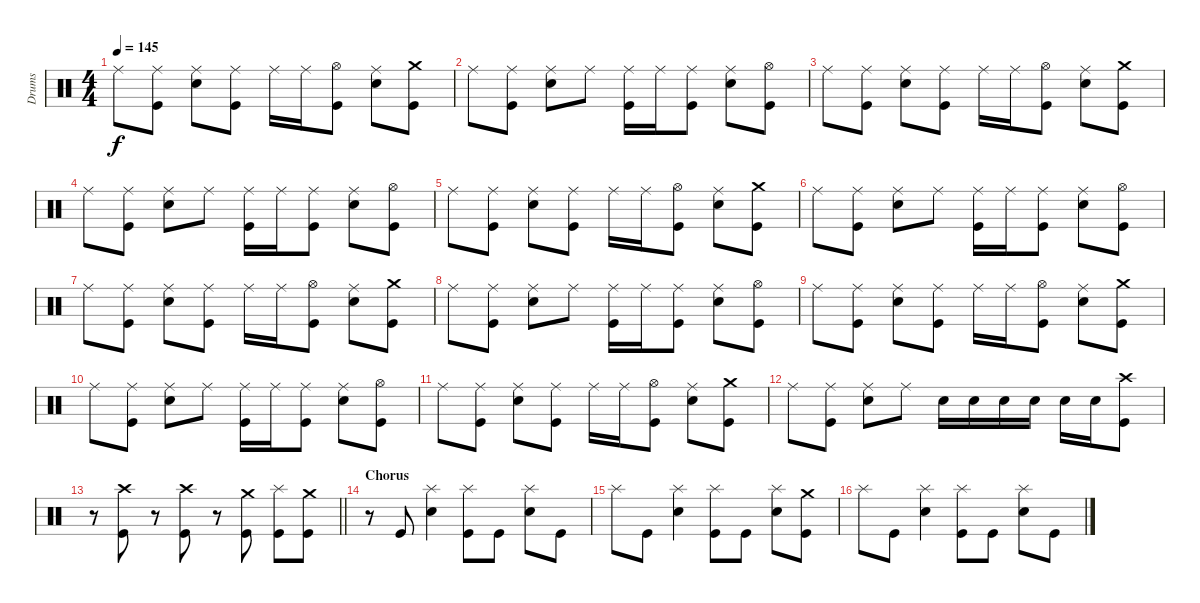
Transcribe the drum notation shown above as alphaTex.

\track ("Drums" "Drums") {instrument percussion}
\staff {score}
\articulation defaults
\ts (4 4)
\tempo 145
\clef neutral
\ks c "Ride (middle)".8{dy f}
("Ride (middle)" "Kick (hit)").8 ("Ride (middle)" "Electric Snare (hit)").8 ("Ride (middle)" "Kick (hit)").8 "Ride (middle)".16 "Ride (middle)".16 ("Hi-Hat (open)" "Kick (hit)").8 ("Ride (middle)" "Electric Snare (hit)").8 ("Crash medium (hit)" "Kick (hit)").8 |
"Ride (middle)".8 ("Ride (middle)" "Kick (hit)").8 ("Ride (middle)" "Electric Snare (hit)").8 "Ride (middle)".8 ("Ride (middle)" "Kick (hit)").16 "Ride (middle)".16 ("Ride (middle)" "Kick (hit)").8 ("Ride (middle)" "Electric Snare (hit)").8 ("Hi-Hat (open)" "Kick (hit)").8 |
"Ride (middle)".8 ("Ride (middle)" "Kick (hit)").8 ("Ride (middle)" "Electric Snare (hit)").8 ("Ride (middle)" "Kick (hit)").8 "Ride (middle)".16 "Ride (middle)".16 ("Hi-Hat (open)" "Kick (hit)").8 ("Ride (middle)" "Electric Snare (hit)").8 ("Crash medium (hit)" "Kick (hit)").8 |
"Ride (middle)".8 ("Ride (middle)" "Kick (hit)").8 ("Ride (middle)" "Electric Snare (hit)").8 "Ride (middle)".8 ("Ride (middle)" "Kick (hit)").16 "Ride (middle)".16 ("Ride (middle)" "Kick (hit)").8 ("Ride (middle)" "Electric Snare (hit)").8 ("Hi-Hat (open)" "Kick (hit)").8 |
"Ride (middle)".8 ("Ride (middle)" "Kick (hit)").8 ("Ride (middle)" "Electric Snare (hit)").8 ("Ride (middle)" "Kick (hit)").8 "Ride (middle)".16 "Ride (middle)".16 ("Hi-Hat (open)" "Kick (hit)").8 ("Ride (middle)" "Electric Snare (hit)").8 ("Crash medium (hit)" "Kick (hit)").8 |
"Ride (middle)".8 ("Ride (middle)" "Kick (hit)").8 ("Ride (middle)" "Electric Snare (hit)").8 "Ride (middle)".8 ("Ride (middle)" "Kick (hit)").16 "Ride (middle)".16 ("Ride (middle)" "Kick (hit)").8 ("Ride (middle)" "Electric Snare (hit)").8 ("Hi-Hat (open)" "Kick (hit)").8 |
"Ride (middle)".8 ("Ride (middle)" "Kick (hit)").8 ("Ride (middle)" "Electric Snare (hit)").8 ("Ride (middle)" "Kick (hit)").8 "Ride (middle)".16 "Ride (middle)".16 ("Hi-Hat (open)" "Kick (hit)").8 ("Ride (middle)" "Electric Snare (hit)").8 ("Crash medium (hit)" "Kick (hit)").8 |
"Ride (middle)".8 ("Ride (middle)" "Kick (hit)").8 ("Ride (middle)" "Electric Snare (hit)").8 "Ride (middle)".8 ("Ride (middle)" "Kick (hit)").16 "Ride (middle)".16 ("Ride (middle)" "Kick (hit)").8 ("Ride (middle)" "Electric Snare (hit)").8 ("Hi-Hat (open)" "Kick (hit)").8 |
"Ride (middle)".8 ("Ride (middle)" "Kick (hit)").8 ("Ride (middle)" "Electric Snare (hit)").8 ("Ride (middle)" "Kick (hit)").8 "Ride (middle)".16 "Ride (middle)".16 ("Hi-Hat (open)" "Kick (hit)").8 ("Ride (middle)" "Electric Snare (hit)").8 ("Crash medium (hit)" "Kick (hit)").8 |
"Ride (middle)".8 ("Ride (middle)" "Kick (hit)").8 ("Ride (middle)" "Electric Snare (hit)").8 "Ride (middle)".8 ("Ride (middle)" "Kick (hit)").16 "Ride (middle)".16 ("Ride (middle)" "Kick (hit)").8 ("Ride (middle)" "Electric Snare (hit)").8 ("Hi-Hat (open)" "Kick (hit)").8 |
"Ride (middle)".8 ("Ride (middle)" "Kick (hit)").8 ("Ride (middle)" "Electric Snare (hit)").8 ("Ride (middle)" "Kick (hit)").8 "Ride (middle)".16 "Ride (middle)".16 ("Hi-Hat (open)" "Kick (hit)").8 ("Ride (middle)" "Electric Snare (hit)").8 ("Crash medium (hit)" "Kick (hit)").8 |
"Ride (middle)".8 ("Ride (middle)" "Kick (hit)").8 ("Ride (middle)" "Electric Snare (hit)").8 "Ride (middle)".8 "Electric Snare (hit)".16 "Electric Snare (hit)".16 "Electric Snare (hit)".16 "Electric Snare (hit)".16 "Electric Snare (hit)".16 "Electric Snare (hit)".16 ("Crash high (hit)" "Kick (hit)").8 |
\barLineRight lightlight
r.8 ("Crash high (hit)" "Kick (hit)").8 r.8 ("Crash high (hit)" "Kick (hit)").8 r.8 ("Crash medium (hit)" "Kick (hit)").8 ("Splash (hit)" "Kick (hit)").8 ("Crash medium (hit)" "Kick (hit)").8 |
\section ("" "Chorus")
r.8 "Kick (hit)".8 ("Splash (hit)" "Electric Snare (hit)").4 ("Splash (hit)" "Kick (hit)").8 "Kick (hit)".8 ("Splash (hit)" "Electric Snare (hit)").8 "Kick (hit)".8 |
"Splash (hit)".8 "Kick (hit)".8 ("Splash (hit)" "Electric Snare (hit)").4 ("Splash (hit)" "Kick (hit)").8 "Kick (hit)".8 ("Splash (hit)" "Electric Snare (hit)").8 ("Crash medium (hit)" "Kick (hit)").8 |
"Splash (hit)".8 "Kick (hit)".8 ("Splash (hit)" "Electric Snare (hit)").4 ("Splash (hit)" "Kick (hit)").8 "Kick (hit)".8 ("Splash (hit)" "Electric Snare (hit)").8 "Kick (hit)".8
